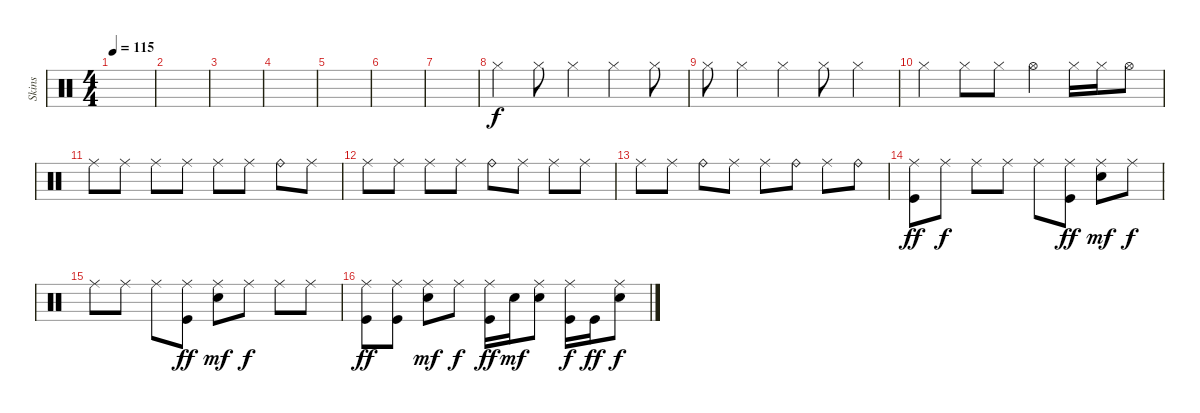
\track ("Skins" "Skins") {instrument percussion}
\staff {score}
\articulation defaults
\ts (4 4)
\tempo 115
\clef neutral
\ks c
|
|
|
|
|
|
|
"Hi-Hat (closed)".4 "Hi-Hat (closed)".8 "Hi-Hat (closed)".4 "Hi-Hat (closed)".4 "Hi-Hat (closed)".8 |
"Hi-Hat (closed)".8 "Hi-Hat (closed)".4 "Hi-Hat (closed)".4 "Hi-Hat (closed)".8 "Hi-Hat (closed)".4 |
"Hi-Hat (closed)".4 "Hi-Hat (closed)".8 "Hi-Hat (closed)".8 "Hi-Hat (open)".4 "Hi-Hat (closed)".16 "Hi-Hat (closed)".16 "Hi-Hat (open)".8 |
"Ride (middle)".8 "Ride (middle)".8 "Ride (middle)".8 "Ride (middle)".8 "Ride (middle)".8 "Ride (middle)".8 "Ride (bell)".8 "Ride (middle)".8 |
"Ride (middle)".8 "Ride (middle)".8 "Ride (middle)".8 "Ride (middle)".8 "Ride (bell)".8 "Ride (middle)".8 "Ride (middle)".8 "Ride (middle)".8 |
"Ride (middle)".8 "Ride (middle)".8 "Ride (bell)".8 "Ride (middle)".8 "Ride (middle)".8 "Ride (bell)".8 "Ride (middle)".8 "Ride (bell)".8 |
("Ride (middle)" "Kick (hit)").8{dy ff} "Ride (middle)".8{dy f} "Ride (middle)".8 "Ride (middle)".8 "Ride (middle)".8 ("Ride (middle)" "Kick (hit)").8{dy ff} ("Ride (middle)" "Electric Snare (hit)").8{dy mf} "Ride (middle)".8{dy f} |
"Ride (middle)".8 "Ride (middle)".8 "Ride (middle)".8 ("Ride (middle)" "Kick (hit)").8{dy ff} ("Ride (middle)" "Electric Snare (hit)").8{dy mf} "Ride (middle)".8{dy f} "Ride (middle)".8 "Ride (middle)".8 |
("Ride (middle)" "Kick (hit)").8{dy ff} ("Ride (middle)" "Kick (hit)").8 ("Ride (middle)" "Electric Snare (hit)").8{dy mf} "Ride (middle)".8{dy f} ("Ride (middle)" "Kick (hit)").16{dy ff} "Electric Snare (hit)".16{dy mf} ("Ride (middle)" "Electric Snare (hit)").8 ("Ride (middle)" "Kick (hit)").16{dy f} "Kick (hit)".16{dy ff} ("Ride (middle)" "Electric Snare (hit)").8{dy f}
